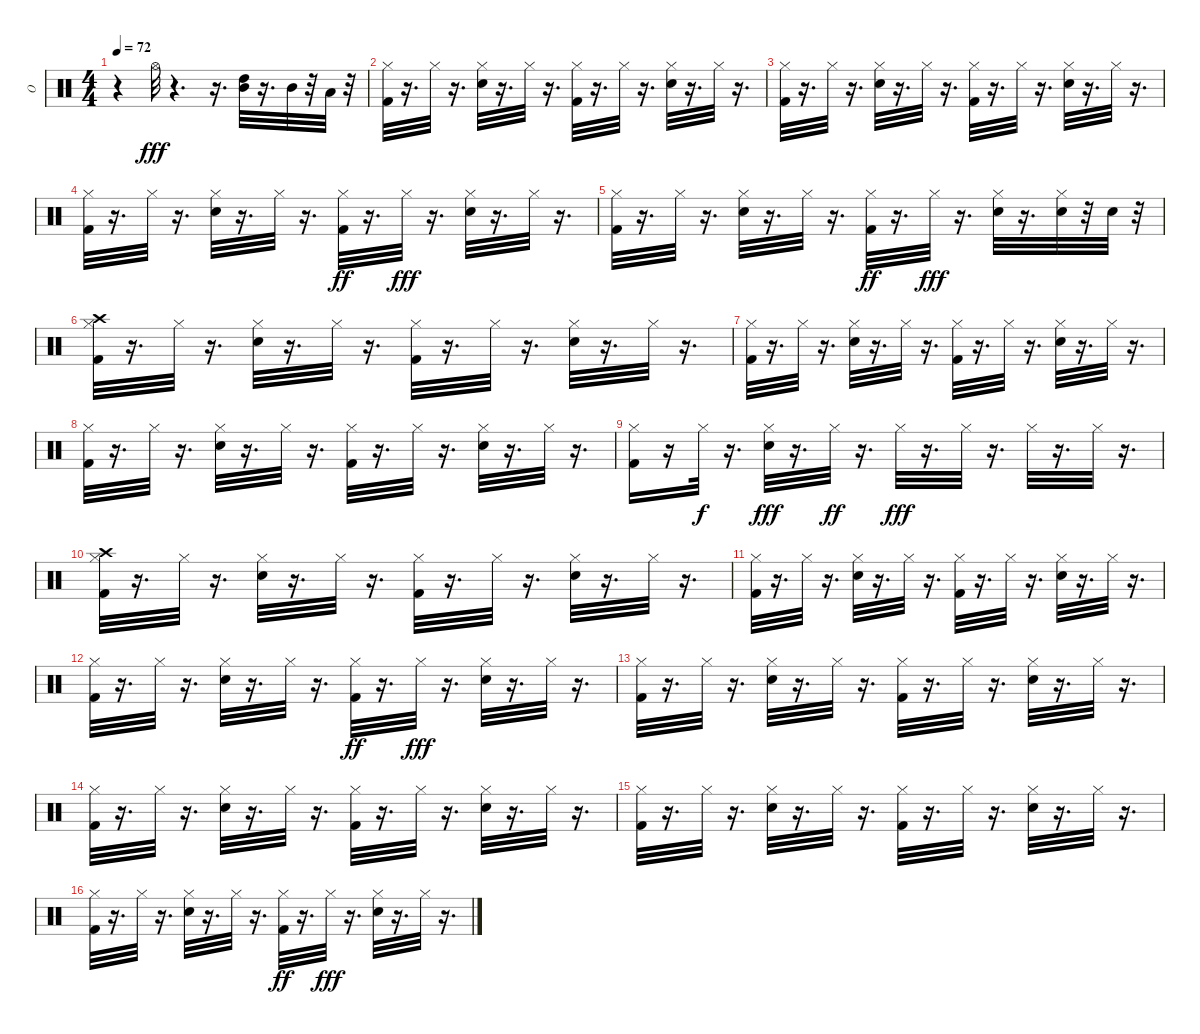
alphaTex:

\track ("O" "O") {instrument percussion}
\staff {score}
\articulation defaults
\ts (4 4)
\tempo 72
\clef neutral
\ks c
r.4{dy fff} "Hi-Hat (open)".32 r.4{d} r.16{d} ("Mid Tom (hit)" "High Tom (hit)").32 r.16{d} "Mid Tom (hit)".32 r.32 "Low Tom (hit)".32 r.32 |
("Kick (hit) 2" "Hi-Hat (closed)").32 r.16{d} "Hi-Hat (closed)".32 r.16{d} ("Hi-Hat (closed)" "Snare (hit) 2").32 r.16{d} "Hi-Hat (closed)".32 r.16{d} ("Hi-Hat (closed)" "Kick (hit) 2").32 r.16{d} "Hi-Hat (closed)".32 r.16{d} ("Hi-Hat (closed)" "Snare (hit) 2").32 r.16{d} "Hi-Hat (closed)".32 r.16{d} |
("Hi-Hat (closed)" "Kick (hit) 2").32 r.16{d} "Hi-Hat (closed)".32 r.16{d} ("Hi-Hat (closed)" "Snare (hit) 2").32 r.16{d} "Hi-Hat (closed)".32 r.16{d} ("Hi-Hat (closed)" "Kick (hit) 2").32 r.16{d} "Hi-Hat (closed)".32 r.16{d} ("Hi-Hat (closed)" "Snare (hit) 2").32 r.16{d} "Hi-Hat (closed)".32 r.16{d} |
("Hi-Hat (closed)" "Kick (hit) 2").32 r.16{d} "Hi-Hat (closed)".32 r.16{d} ("Hi-Hat (closed)" "Snare (hit) 2").32 r.16{d} "Hi-Hat (closed)".32 r.16{d} ("Hi-Hat (closed)" "Kick (hit) 2").32{dy ff} r.16{d} "Hi-Hat (closed)".32{dy fff} r.16{d} ("Hi-Hat (closed)" "Snare (hit) 2").32 r.16{d} "Hi-Hat (closed)".32 r.16{d} |
("Hi-Hat (closed)" "Kick (hit) 2").32 r.16{d} "Hi-Hat (closed)".32 r.16{d} ("Hi-Hat (closed)" "Snare (hit) 2").32 r.16{d} "Hi-Hat (closed)".32 r.16{d} ("Hi-Hat (closed)" "Kick (hit) 2").32{dy ff} r.16{d} "Hi-Hat (closed)".32{dy fff} r.16{d} ("Hi-Hat (closed)" "Snare (hit) 2").32 r.16{d} ("Snare (hit) 2" "Hi-Hat (closed)").32 r.32 "Snare (hit) 2".32 r.32 |
("Crash high (hit)" "Kick (hit) 2" "Hi-Hat (closed)").32 r.16{d} "Hi-Hat (closed)".32 r.16{d} ("Hi-Hat (closed)" "Snare (hit) 2").32 r.16{d} "Hi-Hat (closed)".32 r.16{d} ("Hi-Hat (closed)" "Kick (hit) 2").32 r.16{d} "Hi-Hat (closed)".32 r.16{d} ("Hi-Hat (closed)" "Snare (hit) 2").32 r.16{d} "Hi-Hat (closed)".32 r.16{d} |
("Hi-Hat (closed)" "Kick (hit) 2").32 r.16{d} "Hi-Hat (closed)".32 r.16{d} ("Hi-Hat (closed)" "Snare (hit) 2").32 r.16{d} "Hi-Hat (closed)".32 r.16{d} ("Hi-Hat (closed)" "Kick (hit) 2").32 r.16{d} "Hi-Hat (closed)".32 r.16{d} ("Hi-Hat (closed)" "Snare (hit) 2").32 r.16{d} "Hi-Hat (closed)".32 r.16{d} |
("Hi-Hat (closed)" "Kick (hit) 2").32 r.16{d} "Hi-Hat (closed)".32 r.16{d} ("Hi-Hat (closed)" "Snare (hit) 2").32 r.16{d} "Hi-Hat (closed)".32 r.16{d} ("Hi-Hat (closed)" "Kick (hit) 2").32 r.16{d} "Hi-Hat (closed)".32 r.16{d} ("Hi-Hat (closed)" "Snare (hit) 2").32 r.16{d} "Hi-Hat (closed)".32 r.16{d} |
("Kick (hit) 2" "Hi-Hat (closed)").16 r.16 "Hi-Hat (closed)".32{dy f} r.16{d} ("Snare (hit) 2" "Hi-Hat (closed)").32{dy fff} r.16{d} "Hi-Hat (closed)".32{dy ff} r.16{d} "Hi-Hat (closed)".32{dy fff} r.16{d} "Hi-Hat (closed)".32 r.16{d} "Hi-Hat (closed)".32 r.16{d} "Hi-Hat (closed)".32 r.16{d} |
("Hi-Hat (closed)" "Kick (hit) 2" "Crash high (hit)").32 r.16{d} "Hi-Hat (closed)".32 r.16{d} ("Hi-Hat (closed)" "Snare (hit) 2").32 r.16{d} "Hi-Hat (closed)".32 r.16{d} ("Hi-Hat (closed)" "Kick (hit) 2").32 r.16{d} "Hi-Hat (closed)".32 r.16{d} ("Hi-Hat (closed)" "Snare (hit) 2").32 r.16{d} "Hi-Hat (closed)".32 r.16{d} |
("Kick (hit) 2" "Hi-Hat (closed)").32 r.16{d} "Hi-Hat (closed)".32 r.16{d} ("Hi-Hat (closed)" "Snare (hit) 2").32 r.16{d} "Hi-Hat (closed)".32 r.16{d} ("Hi-Hat (closed)" "Kick (hit) 2").32 r.16{d} "Hi-Hat (closed)".32 r.16{d} ("Hi-Hat (closed)" "Snare (hit) 2").32 r.16{d} "Hi-Hat (closed)".32 r.16{d} |
("Hi-Hat (closed)" "Kick (hit) 2").32 r.16{d} "Hi-Hat (closed)".32 r.16{d} ("Hi-Hat (closed)" "Snare (hit) 2").32 r.16{d} "Hi-Hat (closed)".32 r.16{d} ("Hi-Hat (closed)" "Kick (hit) 2").32{dy ff} r.16{d} "Hi-Hat (closed)".32{dy fff} r.16{d} ("Hi-Hat (closed)" "Snare (hit) 2").32 r.16{d} "Hi-Hat (closed)".32 r.16{d} |
("Hi-Hat (closed)" "Kick (hit) 2").32 r.16{d} "Hi-Hat (closed)".32 r.16{d} ("Hi-Hat (closed)" "Snare (hit) 2").32 r.16{d} "Hi-Hat (closed)".32 r.16{d} ("Hi-Hat (closed)" "Kick (hit) 2").32 r.16{d} "Hi-Hat (closed)".32 r.16{d} ("Hi-Hat (closed)" "Snare (hit) 2").32 r.16{d} "Hi-Hat (closed)".32 r.16{d} |
("Kick (hit) 2" "Hi-Hat (closed)").32 r.16{d} "Hi-Hat (closed)".32 r.16{d} ("Hi-Hat (closed)" "Snare (hit) 2").32 r.16{d} "Hi-Hat (closed)".32 r.16{d} ("Hi-Hat (closed)" "Kick (hit) 2").32 r.16{d} "Hi-Hat (closed)".32 r.16{d} ("Hi-Hat (closed)" "Snare (hit) 2").32 r.16{d} "Hi-Hat (closed)".32 r.16{d} |
("Hi-Hat (closed)" "Kick (hit) 2").32 r.16{d} "Hi-Hat (closed)".32 r.16{d} ("Hi-Hat (closed)" "Snare (hit) 2").32 r.16{d} "Hi-Hat (closed)".32 r.16{d} ("Hi-Hat (closed)" "Kick (hit) 2").32 r.16{d} "Hi-Hat (closed)".32 r.16{d} ("Hi-Hat (closed)" "Snare (hit) 2").32 r.16{d} "Hi-Hat (closed)".32 r.16{d} |
("Hi-Hat (closed)" "Kick (hit) 2").32 r.16{d} "Hi-Hat (closed)".32 r.16{d} ("Hi-Hat (closed)" "Snare (hit) 2").32 r.16{d} "Hi-Hat (closed)".32 r.16{d} ("Hi-Hat (closed)" "Kick (hit) 2").32{dy ff} r.16{d} "Hi-Hat (closed)".32{dy fff} r.16{d} ("Hi-Hat (closed)" "Snare (hit) 2").32 r.16{d} "Hi-Hat (closed)".32 r.16{d}
